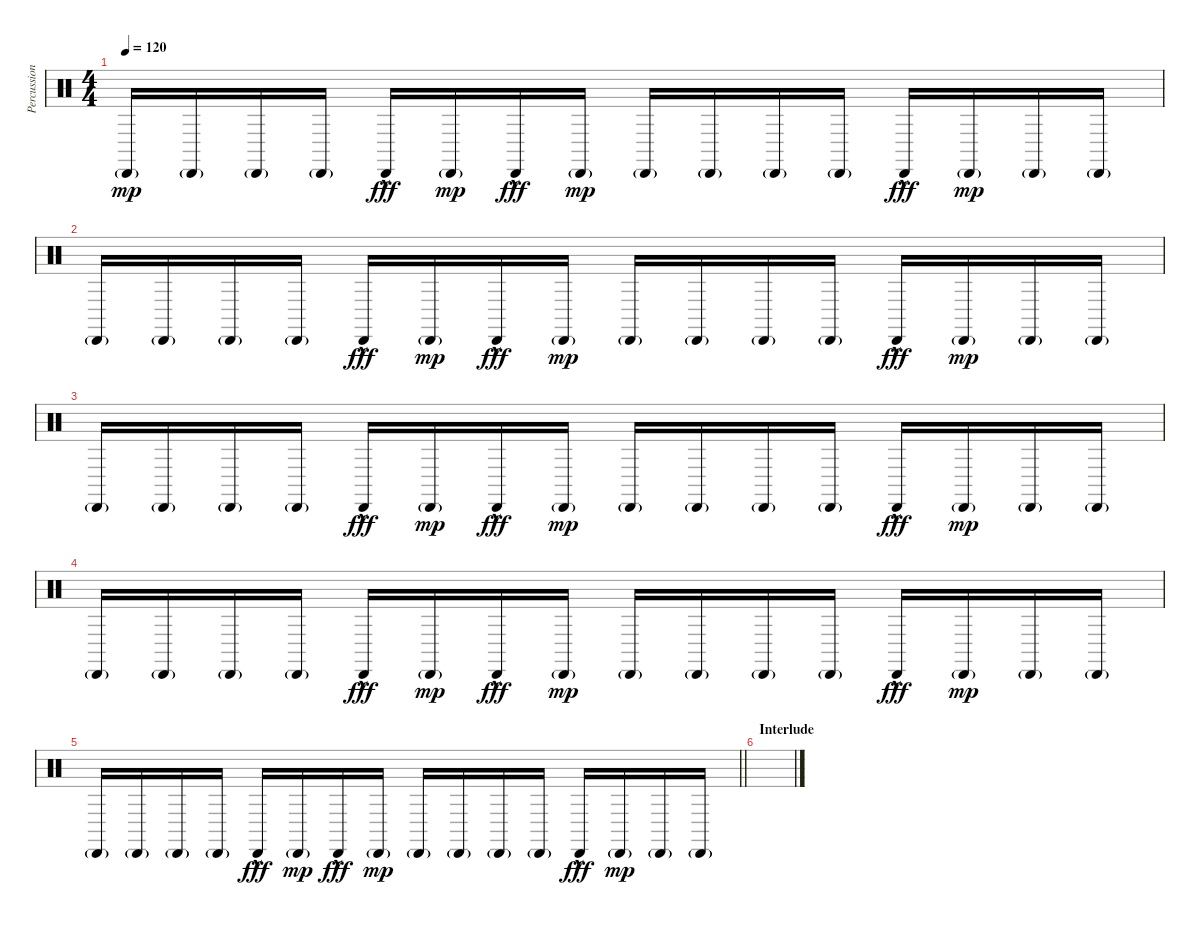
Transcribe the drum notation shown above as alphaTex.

\track ("Percussions" "Percussion") {instrument percussion}
\staff {score}
\articulation defaults
\ts (4 4)
\tempo 120
\clef neutral
\ks c "Cabasa (hit)"{g}.16{dy mp} "Cabasa (hit)"{g}.16 "Cabasa (hit)"{g}.16 "Cabasa (hit)"{g}.16 "Cabasa (hit)"{hac}.16{dy fff} "Cabasa (hit)"{g}.16{dy mp} "Cabasa (hit)"{hac}.16{dy fff} "Cabasa (hit)"{g}.16{dy mp} "Cabasa (hit)"{g}.16 "Cabasa (hit)"{g}.16 "Cabasa (hit)"{g}.16 "Cabasa (hit)"{g}.16 "Cabasa (hit)"{hac}.16{dy fff} "Cabasa (hit)"{g}.16{dy mp} "Cabasa (hit)"{g}.16 "Cabasa (hit)"{g}.16
|
"Cabasa (hit)"{g}.16 "Cabasa (hit)"{g}.16 "Cabasa (hit)"{g}.16 "Cabasa (hit)"{g}.16 "Cabasa (hit)"{hac}.16{dy fff} "Cabasa (hit)"{g}.16{dy mp} "Cabasa (hit)"{hac}.16{dy fff} "Cabasa (hit)"{g}.16{dy mp} "Cabasa (hit)"{g}.16 "Cabasa (hit)"{g}.16 "Cabasa (hit)"{g}.16 "Cabasa (hit)"{g}.16 "Cabasa (hit)"{hac}.16{dy fff} "Cabasa (hit)"{g}.16{dy mp} "Cabasa (hit)"{g}.16 "Cabasa (hit)"{g}.16 |
"Cabasa (hit)"{g}.16 "Cabasa (hit)"{g}.16 "Cabasa (hit)"{g}.16 "Cabasa (hit)"{g}.16 "Cabasa (hit)"{hac}.16{dy fff} "Cabasa (hit)"{g}.16{dy mp} "Cabasa (hit)"{hac}.16{dy fff} "Cabasa (hit)"{g}.16{dy mp} "Cabasa (hit)"{g}.16 "Cabasa (hit)"{g}.16 "Cabasa (hit)"{g}.16 "Cabasa (hit)"{g}.16 "Cabasa (hit)"{hac}.16{dy fff} "Cabasa (hit)"{g}.16{dy mp} "Cabasa (hit)"{g}.16 "Cabasa (hit)"{g}.16 |
"Cabasa (hit)"{g}.16 "Cabasa (hit)"{g}.16 "Cabasa (hit)"{g}.16 "Cabasa (hit)"{g}.16 "Cabasa (hit)"{hac}.16{dy fff} "Cabasa (hit)"{g}.16{dy mp} "Cabasa (hit)"{hac}.16{dy fff} "Cabasa (hit)"{g}.16{dy mp} "Cabasa (hit)"{g}.16 "Cabasa (hit)"{g}.16 "Cabasa (hit)"{g}.16 "Cabasa (hit)"{g}.16 "Cabasa (hit)"{hac}.16{dy fff} "Cabasa (hit)"{g}.16{dy mp} "Cabasa (hit)"{g}.16 "Cabasa (hit)"{g}.16 |
\barLineRight lightlight "Cabasa (hit)"{g}.16 "Cabasa (hit)"{g}.16 "Cabasa (hit)"{g}.16 "Cabasa (hit)"{g}.16 "Cabasa (hit)"{hac}.16{dy fff} "Cabasa (hit)"{g}.16{dy mp} "Cabasa (hit)"{hac}.16{dy fff} "Cabasa (hit)"{g}.16{dy mp} "Cabasa (hit)"{g}.16 "Cabasa (hit)"{g}.16 "Cabasa (hit)"{g}.16 "Cabasa (hit)"{g}.16 "Cabasa (hit)"{hac}.16{dy fff} "Cabasa (hit)"{g}.16{dy mp} "Cabasa (hit)"{g}.16 "Cabasa (hit)"{g}.16
|
\section ("" "Interlude")
